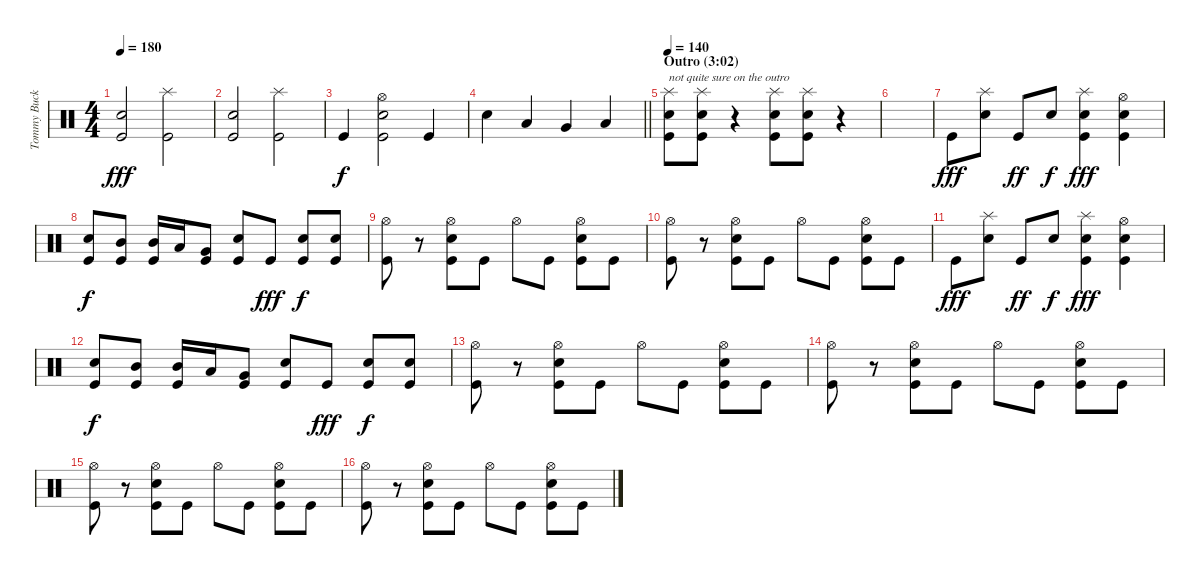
\track ("Tommy Buckly (drums)" "Tommy Buck") {instrument percussion}
\staff {score}
\articulation defaults
\ts (4 4)
\tempo 180
\clef neutral
\ks c
("Electric Snare (hit)" "Kick (hit)").2{dy fff} ("Splash (hit)" "Kick (hit)").2 |
("Electric Snare (hit)" "Kick (hit)").2 ("Splash (hit)" "Kick (hit)").2 |
"Kick (hit)".4{dy f} ("Hi-Hat (open)" "Electric Snare (hit)" "Kick (hit)").2 "Kick (hit)".4 |
\barLineRight lightlight "Electric Snare (hit)".4 "Low Tom (hit)".4 "Very Low Tom (hit)".4 "Low Floor Tom (hit)".4
|
\section ("" "Outro (3:02)")
\tempo 140
("Splash (hit)" "Electric Snare (hit)" "Kick (hit)").8{txt "not quite sure on the outro"} ("Splash (hit)" "Electric Snare (hit)" "Kick (hit)").8 r.4 ("Splash (hit)" "Electric Snare (hit)" "Kick (hit)").8 ("Splash (hit)" "Electric Snare (hit)" "Kick (hit)").8 r.4 |
|
"Kick (hit)".8{dy fff} ("Splash (hit)" "Electric Snare (hit)").8 "Kick (hit)".8{dy ff} "Electric Snare (hit)".8{dy f} ("Splash (hit)" "Electric Snare (hit)" "Kick (hit)").4{dy fff} ("Hi-Hat (open)" "Electric Snare (hit)" "Kick (hit)").4 |
("Electric Snare (hit)" "Kick (hit)").8{dy f} ("Mid Tom (hit)" "Kick (hit)").8 ("Mid Tom (hit)" "Kick (hit)").16 "Low Tom (hit)".16 ("Very Low Tom (hit)" "Kick (hit)").8 ("Electric Snare (hit)" "Kick (hit)").8 "Kick (hit)".8{dy fff} ("Electric Snare (hit)" "Kick (hit)").8{bd 480 dy f} ("Electric Snare (hit)" "Kick (hit)").8 |
("Hi-Hat (open)" "Kick (hit)").8 r.8 ("Hi-Hat (open)" "Electric Snare (hit)" "Kick (hit)").8 "Kick (hit)".8 "Hi-Hat (open)".8 "Kick (hit)".8 ("Hi-Hat (open)" "Electric Snare (hit)" "Kick (hit)").8 "Kick (hit)".8 |
("Hi-Hat (open)" "Kick (hit)").8 r.8 ("Hi-Hat (open)" "Electric Snare (hit)" "Kick (hit)").8 "Kick (hit)".8 "Hi-Hat (open)".8 "Kick (hit)".8 ("Hi-Hat (open)" "Electric Snare (hit)" "Kick (hit)").8 "Kick (hit)".8 |
"Kick (hit)".8{dy fff} ("Splash (hit)" "Electric Snare (hit)").8 "Kick (hit)".8{dy ff} "Electric Snare (hit)".8{dy f} ("Splash (hit)" "Electric Snare (hit)" "Kick (hit)").4{dy fff} ("Hi-Hat (open)" "Electric Snare (hit)" "Kick (hit)").4 |
("Electric Snare (hit)" "Kick (hit)").8{dy f} ("Mid Tom (hit)" "Kick (hit)").8 ("Mid Tom (hit)" "Kick (hit)").16 "Low Tom (hit)".16 ("Very Low Tom (hit)" "Kick (hit)").8 ("Electric Snare (hit)" "Kick (hit)").8 "Kick (hit)".8{dy fff} ("Electric Snare (hit)" "Kick (hit)").8{bd 480 dy f} ("Electric Snare (hit)" "Kick (hit)").8 |
("Hi-Hat (open)" "Kick (hit)").8 r.8 ("Hi-Hat (open)" "Electric Snare (hit)" "Kick (hit)").8 "Kick (hit)".8 "Hi-Hat (open)".8 "Kick (hit)".8 ("Hi-Hat (open)" "Electric Snare (hit)" "Kick (hit)").8 "Kick (hit)".8 |
("Hi-Hat (open)" "Kick (hit)").8 r.8 ("Hi-Hat (open)" "Electric Snare (hit)" "Kick (hit)").8 "Kick (hit)".8 "Hi-Hat (open)".8 "Kick (hit)".8 ("Hi-Hat (open)" "Electric Snare (hit)" "Kick (hit)").8 "Kick (hit)".8 |
("Hi-Hat (open)" "Kick (hit)").8 r.8 ("Hi-Hat (open)" "Electric Snare (hit)" "Kick (hit)").8 "Kick (hit)".8 "Hi-Hat (open)".8 "Kick (hit)".8 ("Hi-Hat (open)" "Electric Snare (hit)" "Kick (hit)").8 "Kick (hit)".8 |
("Hi-Hat (open)" "Kick (hit)").8 r.8 ("Hi-Hat (open)" "Electric Snare (hit)" "Kick (hit)").8 "Kick (hit)".8 "Hi-Hat (open)".8 "Kick (hit)".8 ("Hi-Hat (open)" "Electric Snare (hit)" "Kick (hit)").8 "Kick (hit)".8
